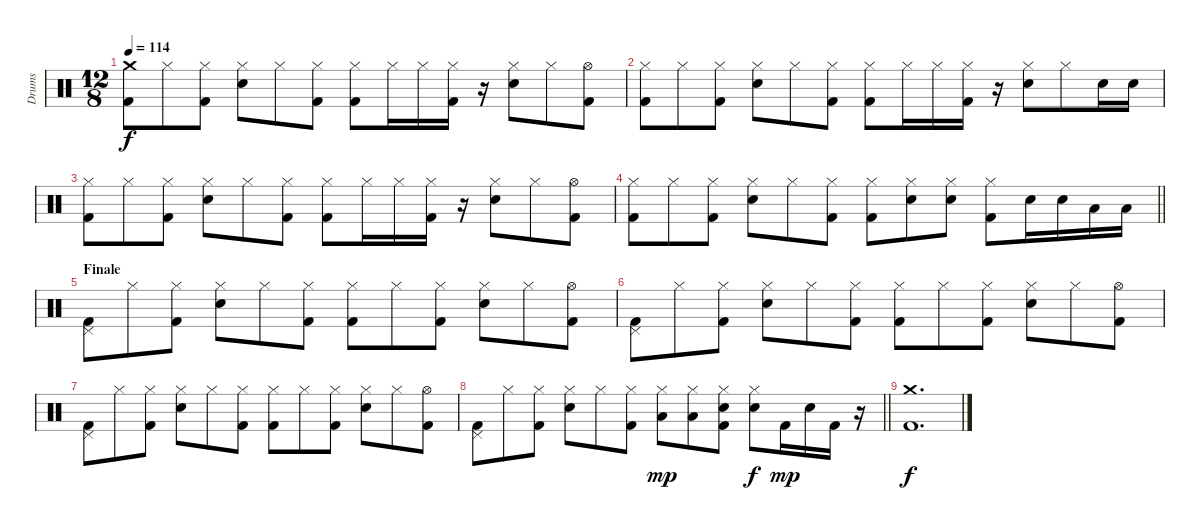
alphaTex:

\track ("Drums" "Drums") {instrument percussion}
\staff {score}
\articulation defaults
\ts (12 8)
\tempo 114
\clef neutral
\ks c
("Crash medium (hit)" "Kick (hit) 2").8{dy f} "Hi-Hat (closed)".8 ("Hi-Hat (closed)" "Kick (hit) 2").8 ("Hi-Hat (closed)" "Snare (hit) 2").8 "Hi-Hat (closed)".8 ("Hi-Hat (closed)" "Kick (hit) 2").8 ("Hi-Hat (closed)" "Kick (hit) 2").8 "Hi-Hat (closed)".16 "Hi-Hat (closed)".16 ("Hi-Hat (closed)" "Kick (hit) 2").16 r.16 ("Hi-Hat (closed)" "Snare (hit) 2").8 "Hi-Hat (closed)".8 ("Hi-Hat (open)" "Kick (hit) 2").8 |
("Hi-Hat (closed)" "Kick (hit) 2").8 "Hi-Hat (closed)".8 ("Hi-Hat (closed)" "Kick (hit) 2").8 ("Hi-Hat (closed)" "Snare (hit) 2").8 "Hi-Hat (closed)".8 ("Hi-Hat (closed)" "Kick (hit) 2").8 ("Hi-Hat (closed)" "Kick (hit) 2").8 "Hi-Hat (closed)".16 "Hi-Hat (closed)".16 ("Hi-Hat (closed)" "Kick (hit) 2").16 r.16 ("Hi-Hat (closed)" "Snare (hit) 2").8 "Hi-Hat (closed)".8 "Snare (hit) 2".16 "Snare (hit) 2".16 |
("Hi-Hat (closed)" "Kick (hit) 2").8 "Hi-Hat (closed)".8 ("Hi-Hat (closed)" "Kick (hit) 2").8 ("Hi-Hat (closed)" "Snare (hit) 2").8 "Hi-Hat (closed)".8 ("Hi-Hat (closed)" "Kick (hit) 2").8 ("Hi-Hat (closed)" "Kick (hit) 2").8 "Hi-Hat (closed)".16 "Hi-Hat (closed)".16 ("Hi-Hat (closed)" "Kick (hit) 2").16 r.16 ("Hi-Hat (closed)" "Snare (hit) 2").8 "Hi-Hat (closed)".8 ("Hi-Hat (open)" "Kick (hit) 2").8 |
\barLineRight lightlight
("Hi-Hat (closed)" "Kick (hit) 2").8 "Hi-Hat (closed)".8 ("Hi-Hat (closed)" "Kick (hit) 2").8 ("Hi-Hat (closed)" "Snare (hit) 2").8 "Hi-Hat (closed)".8 ("Hi-Hat (closed)" "Kick (hit) 2").8 ("Hi-Hat (closed)" "Kick (hit) 2").8 ("Hi-Hat (closed)" "Snare (hit) 2").8 ("Hi-Hat (closed)" "Snare (hit) 2").8 ("Hi-Hat (closed)" "Kick (hit) 2").8 "Snare (hit) 2".16 "Snare (hit) 2".16 "Low Tom (hit)".16 "Low Tom (hit)".16 |
\section ("" "Finale")
("Pedal Hi-Hat (hit)" "Kick (hit) 2").8 "Hi-Hat (closed)".8 ("Hi-Hat (closed)" "Kick (hit) 2").8 ("Hi-Hat (closed)" "Snare (hit) 2").8 "Hi-Hat (closed)".8 ("Hi-Hat (closed)" "Kick (hit) 2").8 ("Hi-Hat (closed)" "Kick (hit) 2").8 "Hi-Hat (closed)".8 ("Hi-Hat (closed)" "Kick (hit) 2").8 ("Hi-Hat (closed)" "Snare (hit) 2").8 "Hi-Hat (closed)".8 ("Hi-Hat (open)" "Kick (hit) 2").8 |
("Pedal Hi-Hat (hit)" "Kick (hit) 2").8 "Hi-Hat (closed)".8 ("Hi-Hat (closed)" "Kick (hit) 2").8 ("Hi-Hat (closed)" "Snare (hit) 2").8 "Hi-Hat (closed)".8 ("Hi-Hat (closed)" "Kick (hit) 2").8 ("Hi-Hat (closed)" "Kick (hit) 2").8 "Hi-Hat (closed)".8 ("Hi-Hat (closed)" "Kick (hit) 2").8 ("Hi-Hat (closed)" "Snare (hit) 2").8 "Hi-Hat (closed)".8 ("Hi-Hat (open)" "Kick (hit) 2").8 |
("Pedal Hi-Hat (hit)" "Kick (hit) 2").8 "Hi-Hat (closed)".8 ("Hi-Hat (closed)" "Kick (hit) 2").8 ("Hi-Hat (closed)" "Snare (hit) 2").8 "Hi-Hat (closed)".8 ("Hi-Hat (closed)" "Kick (hit) 2").8 ("Hi-Hat (closed)" "Kick (hit) 2").8 "Hi-Hat (closed)".8 ("Hi-Hat (closed)" "Kick (hit) 2").8 ("Hi-Hat (closed)" "Snare (hit) 2").8 "Hi-Hat (closed)".8 ("Hi-Hat (open)" "Kick (hit) 2").8 |
\barLineRight lightlight
("Pedal Hi-Hat (hit)" "Kick (hit) 2").8 "Hi-Hat (closed)".8 ("Hi-Hat (closed)" "Kick (hit) 2").8 ("Hi-Hat (closed)" "Snare (hit) 2").8 "Hi-Hat (closed)".8 ("Hi-Hat (closed)" "Kick (hit) 2").8 ("Hi-Hat (closed)" "Low Tom (hit)").8{dy mp} ("Hi-Hat (closed)" "Low Tom (hit)").8 ("Hi-Hat (closed)" "Snare (hit) 2" "Kick (hit) 2").8 ("Hi-Hat (closed)" "Snare (hit) 2").8{dy f} "Kick (hit) 2".16{dy mp} "Snare (hit) 2".16 "Kick (hit) 2".16 r.16 |
("Crash medium (hit)" "Kick (hit) 2").1{d dy f}
